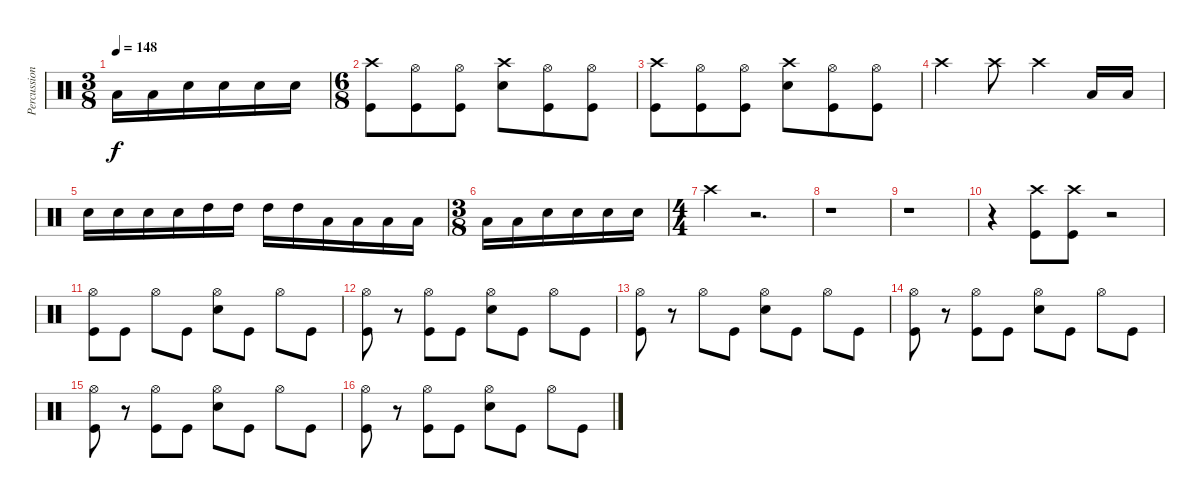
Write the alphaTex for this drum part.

\track ("Percussion" "Percussion") {instrument percussion}
\staff {score}
\articulation defaults
\ts (3 8)
\tempo 148
\clef neutral
\ks c "Low Floor Tom (hit)".16{dy f} "Low Floor Tom (hit)".16 "Electric Snare (hit)".16 "Electric Snare (hit)".16 "Electric Snare (hit)".16 "Electric Snare (hit)".16
|
\ts (6 8)
("Crash high (hit)" "Kick (hit)").8 ("Hi-Hat (open)" "Kick (hit)").8 ("Hi-Hat (open)" "Kick (hit)").8 ("Crash high (hit)" "Electric Snare (hit)").8 ("Hi-Hat (open)" "Kick (hit)").8 ("Hi-Hat (open)" "Kick (hit)").8 |
("Crash high (hit)" "Kick (hit)").8 ("Hi-Hat (open)" "Kick (hit)").8 ("Hi-Hat (open)" "Kick (hit)").8 ("Crash high (hit)" "Electric Snare (hit)").8 ("Hi-Hat (open)" "Kick (hit)").8 ("Hi-Hat (open)" "Kick (hit)").8 |
"Crash high (hit)".4 "Crash high (hit)".8 "Crash high (hit)".4 "Low Floor Tom (hit)".16 "Low Floor Tom (hit)".16 |
"Electric Snare (hit)".16 "Electric Snare (hit)".16 "Electric Snare (hit)".16 "Electric Snare (hit)".16 "High Tom (hit)".16 "High Tom (hit)".16 "High Tom (hit)".16 "High Tom (hit)".16 "Low Floor Tom (hit)".16 "Low Floor Tom (hit)".16 "Low Floor Tom (hit)".16 "Low Floor Tom (hit)".16 |
\ts (3 8)
"Low Floor Tom (hit)".16 "Low Floor Tom (hit)".16 "Electric Snare (hit)".16 "Electric Snare (hit)".16 "Electric Snare (hit)".16 "Electric Snare (hit)".16 |
\ts (4 4)
"Crash high (hit)".4 r.2{d} |
r.1 |
r.1 |
r.4 ("Crash high (hit)" "Kick (hit)").8 ("Crash high (hit)" "Kick (hit)").8 r.2 |
("Hi-Hat (open)" "Kick (hit)").8 "Kick (hit)".8 "Hi-Hat (open)".8 "Kick (hit)".8 ("Hi-Hat (open)" "Electric Snare (hit)").8 "Kick (hit)".8 "Hi-Hat (open)".8 "Kick (hit)".8 |
("Hi-Hat (open)" "Kick (hit)").8 r.8 ("Hi-Hat (open)" "Kick (hit)").8 "Kick (hit)".8 ("Hi-Hat (open)" "Electric Snare (hit)").8 "Kick (hit)".8 "Hi-Hat (open)".8 "Kick (hit)".8 |
("Hi-Hat (open)" "Kick (hit)").8 r.8 "Hi-Hat (open)".8 "Kick (hit)".8 ("Hi-Hat (open)" "Electric Snare (hit)").8 "Kick (hit)".8 "Hi-Hat (open)".8 "Kick (hit)".8 |
("Hi-Hat (open)" "Kick (hit)").8 r.8 ("Hi-Hat (open)" "Kick (hit)").8 "Kick (hit)".8 ("Hi-Hat (open)" "Electric Snare (hit)").8 "Kick (hit)".8 "Hi-Hat (open)".8 "Kick (hit)".8 |
("Hi-Hat (open)" "Kick (hit)").8 r.8 ("Hi-Hat (open)" "Kick (hit)").8 "Kick (hit)".8 ("Hi-Hat (open)" "Electric Snare (hit)").8 "Kick (hit)".8 "Hi-Hat (open)".8 "Kick (hit)".8 |
("Hi-Hat (open)" "Kick (hit)").8 r.8 ("Hi-Hat (open)" "Kick (hit)").8 "Kick (hit)".8 ("Hi-Hat (open)" "Electric Snare (hit)").8 "Kick (hit)".8 "Hi-Hat (open)".8 "Kick (hit)".8
